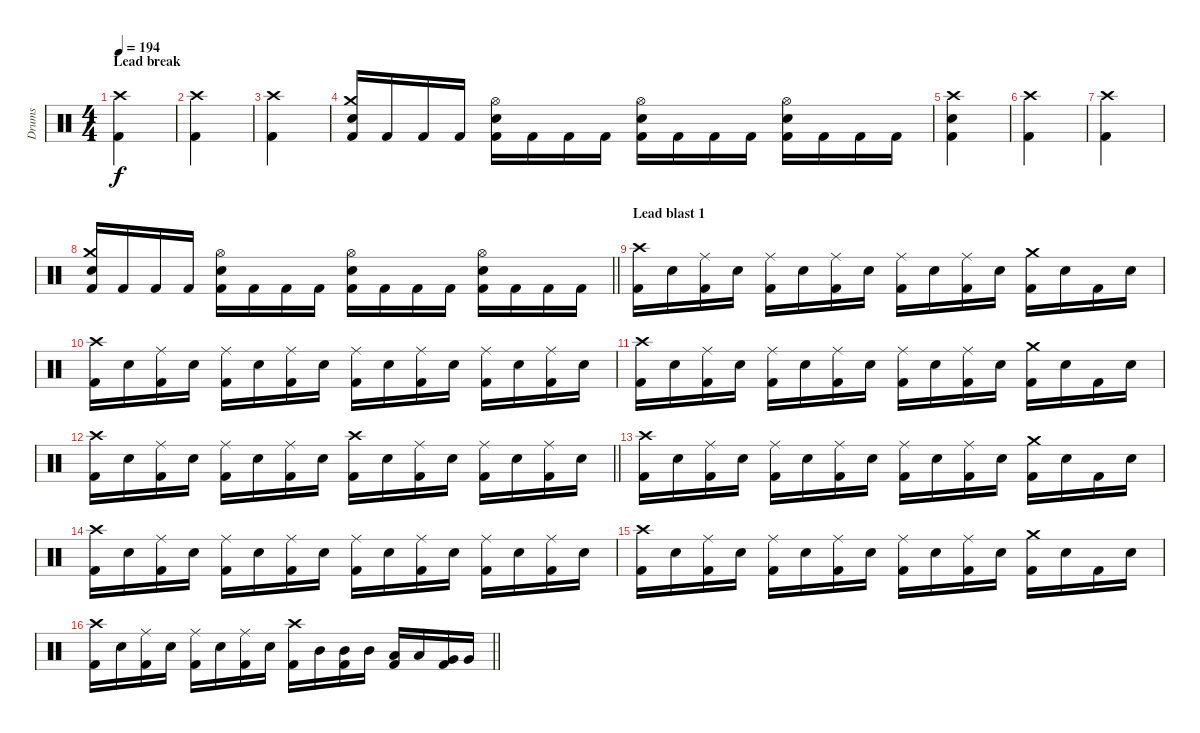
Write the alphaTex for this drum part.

\track ("Drums" "Drums") {instrument percussion}
\staff {score}
\articulation defaults
\ts (4 4)
\section ("" "Lead break")
\tempo 194
\clef neutral
\ks c
("Crash high (hit)" "Kick (hit) 2").4{dy f} |
("Crash high (hit)" "Kick (hit) 2").4 |
("Crash high (hit)" "Kick (hit) 2").4 |
("Crash medium (hit)" "Electric Snare (hit)" "Kick (hit) 2").16 "Kick (hit) 2".16 "Kick (hit) 2".16 "Kick (hit) 2".16 ("Hi-Hat (open)" "Electric Snare (hit)" "Kick (hit) 2").16 "Kick (hit) 2".16 "Kick (hit) 2".16 "Kick (hit) 2".16 ("Hi-Hat (open)" "Electric Snare (hit)" "Kick (hit) 2").16 "Kick (hit) 2".16 "Kick (hit) 2".16 "Kick (hit) 2".16 ("Hi-Hat (open)" "Electric Snare (hit)" "Kick (hit) 2").16 "Kick (hit) 2".16 "Kick (hit) 2".16 "Kick (hit) 2".16 |
("Crash high (hit)" "Electric Snare (hit)" "Kick (hit) 2").4 |
("Crash high (hit)" "Kick (hit) 2").4 |
("Crash high (hit)" "Kick (hit) 2").4 |
\barLineRight lightlight
("Crash medium (hit)" "Electric Snare (hit)" "Kick (hit) 2").16 "Kick (hit) 2".16 "Kick (hit) 2".16 "Kick (hit) 2".16 ("Hi-Hat (open)" "Electric Snare (hit)" "Kick (hit) 2").16 "Kick (hit) 2".16 "Kick (hit) 2".16 "Kick (hit) 2".16 ("Hi-Hat (open)" "Electric Snare (hit)" "Kick (hit) 2").16 "Kick (hit) 2".16 "Kick (hit) 2".16 "Kick (hit) 2".16 ("Hi-Hat (open)" "Electric Snare (hit)" "Kick (hit) 2").16 "Kick (hit) 2".16 "Kick (hit) 2".16 "Kick (hit) 2".16 |
\section ("" "Lead blast 1")
("Crash high (hit)" "Kick (hit) 2").16 "Electric Snare (hit)".16 ("Ride (middle)" "Kick (hit) 2").16 "Electric Snare (hit)".16 ("Ride (middle)" "Kick (hit) 2").16 "Electric Snare (hit)".16 ("Ride (middle)" "Kick (hit) 2").16 "Electric Snare (hit)".16 ("Ride (middle)" "Kick (hit) 2").16 "Electric Snare (hit)".16 ("Ride (middle)" "Kick (hit) 2").16 "Electric Snare (hit)".16 ("Crash medium (hit)" "Kick (hit) 2").16 "Electric Snare (hit)".16 "Kick (hit) 2".16 "Electric Snare (hit)".16 |
("Crash high (hit)" "Kick (hit) 2").16 "Electric Snare (hit)".16 ("Ride (middle)" "Kick (hit) 2").16 "Electric Snare (hit)".16 ("Ride (middle)" "Kick (hit) 2").16 "Electric Snare (hit)".16 ("Ride (middle)" "Kick (hit) 2").16 "Electric Snare (hit)".16 ("Ride (middle)" "Kick (hit) 2").16 "Electric Snare (hit)".16 ("Ride (middle)" "Kick (hit) 2").16 "Electric Snare (hit)".16 ("Ride (middle)" "Kick (hit) 2").16 "Electric Snare (hit)".16 ("Ride (middle)" "Kick (hit) 2").16 "Electric Snare (hit)".16 |
("Crash high (hit)" "Kick (hit) 2").16 "Electric Snare (hit)".16 ("Ride (middle)" "Kick (hit) 2").16 "Electric Snare (hit)".16 ("Ride (middle)" "Kick (hit) 2").16 "Electric Snare (hit)".16 ("Ride (middle)" "Kick (hit) 2").16 "Electric Snare (hit)".16 ("Ride (middle)" "Kick (hit) 2").16 "Electric Snare (hit)".16 ("Ride (middle)" "Kick (hit) 2").16 "Electric Snare (hit)".16 ("Crash medium (hit)" "Kick (hit) 2").16 "Electric Snare (hit)".16 "Kick (hit) 2".16 "Electric Snare (hit)".16 |
\barLineRight lightlight
("Crash high (hit)" "Kick (hit) 2").16 "Electric Snare (hit)".16 ("Ride (middle)" "Kick (hit) 2").16 "Electric Snare (hit)".16 ("Ride (middle)" "Kick (hit) 2").16 "Electric Snare (hit)".16 ("Ride (middle)" "Kick (hit) 2").16 "Electric Snare (hit)".16 ("Crash high (hit)" "Kick (hit) 2").16 "Electric Snare (hit)".16 ("Ride (middle)" "Kick (hit) 2").16 "Electric Snare (hit)".16 ("Ride (middle)" "Kick (hit) 2").16 "Electric Snare (hit)".16 ("Ride (middle)" "Kick (hit) 2").16 "Electric Snare (hit)".16 |
("Crash high (hit)" "Kick (hit) 2").16 "Electric Snare (hit)".16 ("Ride (middle)" "Kick (hit) 2").16 "Electric Snare (hit)".16 ("Ride (middle)" "Kick (hit) 2").16 "Electric Snare (hit)".16 ("Ride (middle)" "Kick (hit) 2").16 "Electric Snare (hit)".16 ("Ride (middle)" "Kick (hit) 2").16 "Electric Snare (hit)".16 ("Ride (middle)" "Kick (hit) 2").16 "Electric Snare (hit)".16 ("Crash medium (hit)" "Kick (hit) 2").16 "Electric Snare (hit)".16 "Kick (hit) 2".16 "Electric Snare (hit)".16 |
("Crash high (hit)" "Kick (hit) 2").16 "Electric Snare (hit)".16 ("Ride (middle)" "Kick (hit) 2").16 "Electric Snare (hit)".16 ("Ride (middle)" "Kick (hit) 2").16 "Electric Snare (hit)".16 ("Ride (middle)" "Kick (hit) 2").16 "Electric Snare (hit)".16 ("Ride (middle)" "Kick (hit) 2").16 "Electric Snare (hit)".16 ("Ride (middle)" "Kick (hit) 2").16 "Electric Snare (hit)".16 ("Ride (middle)" "Kick (hit) 2").16 "Electric Snare (hit)".16 ("Ride (middle)" "Kick (hit) 2").16 "Electric Snare (hit)".16 |
("Crash high (hit)" "Kick (hit) 2").16 "Electric Snare (hit)".16 ("Ride (middle)" "Kick (hit) 2").16 "Electric Snare (hit)".16 ("Ride (middle)" "Kick (hit) 2").16 "Electric Snare (hit)".16 ("Ride (middle)" "Kick (hit) 2").16 "Electric Snare (hit)".16 ("Ride (middle)" "Kick (hit) 2").16 "Electric Snare (hit)".16 ("Ride (middle)" "Kick (hit) 2").16 "Electric Snare (hit)".16 ("Crash medium (hit)" "Kick (hit) 2").16 "Electric Snare (hit)".16 "Kick (hit) 2".16 "Electric Snare (hit)".16 |
\barLineRight lightlight
("Crash high (hit)" "Kick (hit) 2").16 "Electric Snare (hit)".16 ("Ride (middle)" "Kick (hit) 2").16 "Electric Snare (hit)".16 ("Ride (middle)" "Kick (hit) 2").16 "Electric Snare (hit)".16 ("Ride (middle)" "Kick (hit) 2").16 "Electric Snare (hit)".16 ("Crash high (hit)" "Kick (hit) 2").16 "Mid Tom (hit)".16 ("Mid Tom (hit)" "Kick (hit) 2").16 "Mid Tom (hit)".16 ("Low Tom (hit)" "Kick (hit) 2").16 "Low Tom (hit)".16 ("Very Low Tom (hit)" "Kick (hit) 2").16 "Very Low Tom (hit)".16
